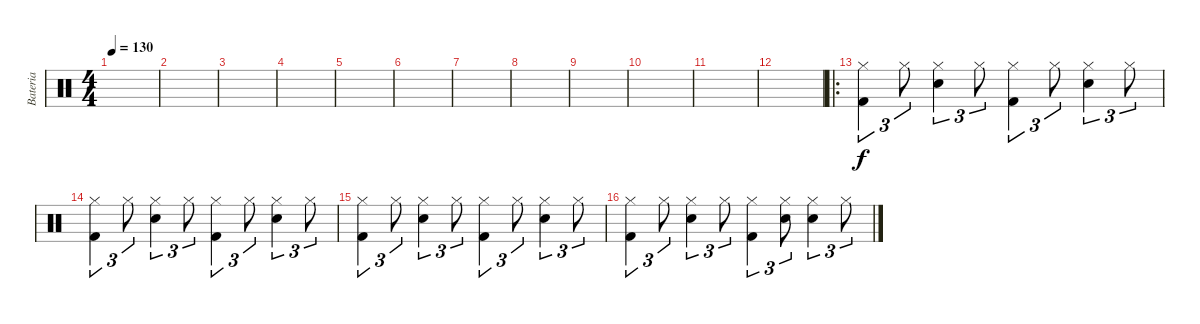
\track ("Bateria" "Bateria") {instrument percussion}
\staff {score}
\articulation defaults
\ts (4 4)
\tempo 130
\tempo 135
\tempo 130
\clef neutral
\ks c
|
|
|
|
|
|
|
|
|
|
|
|
\ro
("Hi-Hat (closed)" "Kick (hit) 2").4{tu (3 2)} "Hi-Hat (closed)".8{tu (3 2)} ("Hi-Hat (closed)" "Snare (hit) 2").4{tu (3 2)} "Hi-Hat (closed)".8{tu (3 2)} ("Hi-Hat (closed)" "Kick (hit) 2").4{tu (3 2)} "Hi-Hat (closed)".8{tu (3 2)} ("Hi-Hat (closed)" "Snare (hit) 2").4{tu (3 2)} "Hi-Hat (closed)".8{tu (3 2)} |
("Hi-Hat (closed)" "Kick (hit) 2").4{tu (3 2)} "Hi-Hat (closed)".8{tu (3 2)} ("Hi-Hat (closed)" "Snare (hit) 2").4{tu (3 2)} "Hi-Hat (closed)".8{tu (3 2)} ("Hi-Hat (closed)" "Kick (hit) 2").4{tu (3 2)} "Hi-Hat (closed)".8{tu (3 2)} ("Hi-Hat (closed)" "Snare (hit) 2").4{tu (3 2)} "Hi-Hat (closed)".8{tu (3 2)} |
("Hi-Hat (closed)" "Kick (hit) 2").4{tu (3 2)} "Hi-Hat (closed)".8{tu (3 2)} ("Hi-Hat (closed)" "Snare (hit) 2").4{tu (3 2)} "Hi-Hat (closed)".8{tu (3 2)} ("Hi-Hat (closed)" "Kick (hit) 2").4{tu (3 2)} "Hi-Hat (closed)".8{tu (3 2)} ("Hi-Hat (closed)" "Snare (hit) 2").4{tu (3 2)} "Hi-Hat (closed)".8{tu (3 2)} |
("Hi-Hat (closed)" "Kick (hit) 2").4{tu (3 2)} "Hi-Hat (closed)".8{tu (3 2)} ("Hi-Hat (closed)" "Snare (hit) 2").4{tu (3 2)} "Hi-Hat (closed)".8{tu (3 2)} ("Hi-Hat (closed)" "Kick (hit) 2").4{tu (3 2)} ("Hi-Hat (closed)" "Snare (hit) 2").8{tu (3 2)} ("Hi-Hat (closed)" "Snare (hit) 2").4{tu (3 2)} "Hi-Hat (closed)".8{tu (3 2)}
